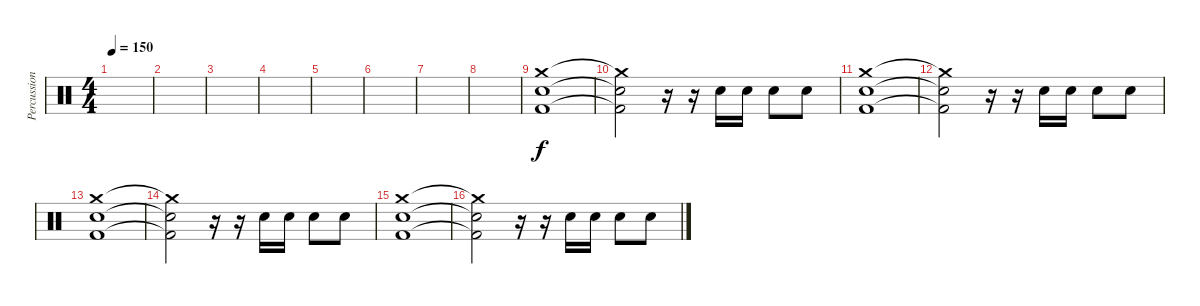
\track ("Percussion" "Percussion") {instrument percussion}
\staff {score}
\articulation defaults
\ts (4 4)
\tempo 150
\clef neutral
\ks c
|
|
|
|
|
|
|
|
("Crash medium (hit)" "Electric Snare (hit)" "Kick (hit) 2").1 |
("Crash medium (hit)"{t} "Electric Snare (hit)"{t} "Kick (hit) 2"{t}).2 r.16 r.16 "Electric Snare (hit)".16 "Electric Snare (hit)".16 "Electric Snare (hit)".8 "Electric Snare (hit)".8 |
("Crash medium (hit)" "Electric Snare (hit)" "Kick (hit) 2").1 |
("Crash medium (hit)"{t} "Electric Snare (hit)"{t} "Kick (hit) 2"{t}).2 r.16 r.16 "Electric Snare (hit)".16 "Electric Snare (hit)".16 "Electric Snare (hit)".8 "Electric Snare (hit)".8 |
("Crash medium (hit)" "Electric Snare (hit)" "Kick (hit) 2").1 |
("Crash medium (hit)"{t} "Electric Snare (hit)"{t} "Kick (hit) 2"{t}).2 r.16 r.16 "Electric Snare (hit)".16 "Electric Snare (hit)".16 "Electric Snare (hit)".8 "Electric Snare (hit)".8 |
("Crash medium (hit)" "Electric Snare (hit)" "Kick (hit) 2").1 |
("Crash medium (hit)"{t} "Electric Snare (hit)"{t} "Kick (hit) 2"{t}).2 r.16 r.16 "Electric Snare (hit)".16 "Electric Snare (hit)".16 "Electric Snare (hit)".8 "Electric Snare (hit)".8
